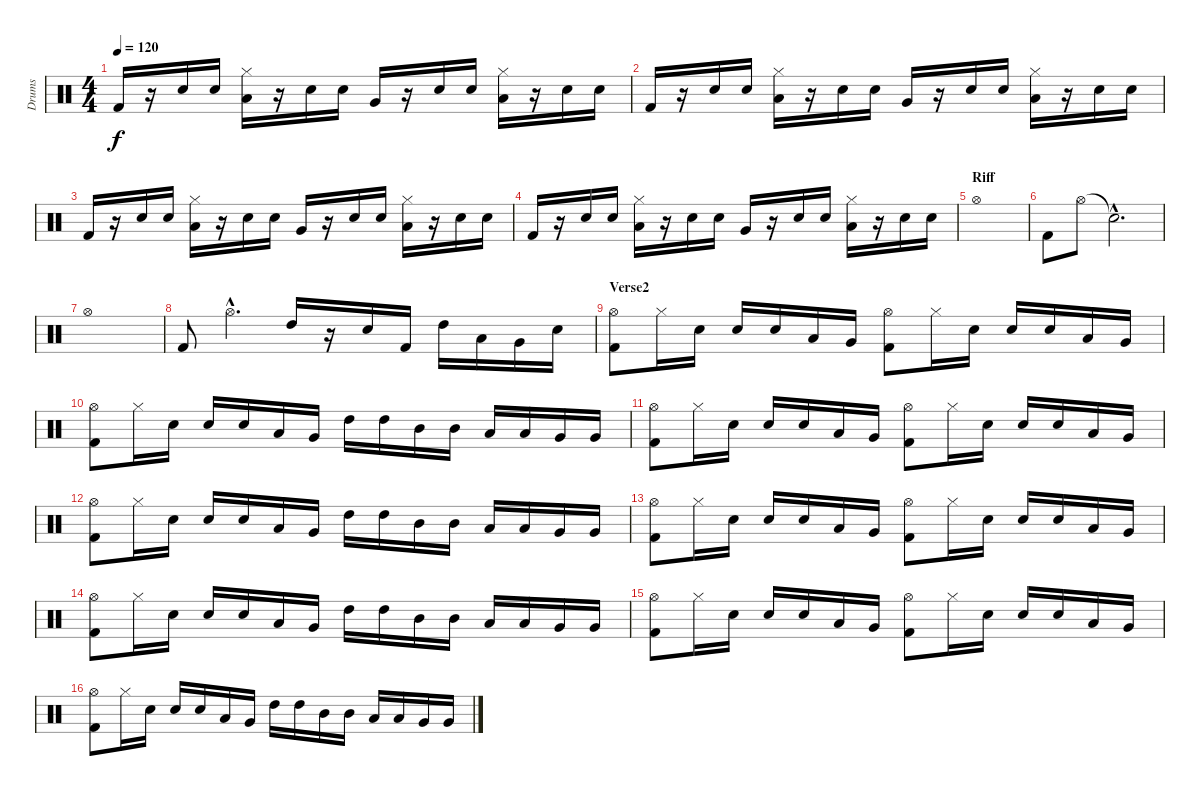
\track ("Drums" "Drums") {instrument percussion}
\staff {score}
\articulation defaults
\ts (4 4)
\tempo 120
\clef neutral
\ks c "Kick (hit) 2".16{dy f}
r.16 "Electric Snare (hit)".16 "Electric Snare (hit)".16 ("Hi-Hat (closed)" "Low Floor Tom (hit)").16 r.16 "Electric Snare (hit)".16 "Electric Snare (hit)".16 "Very Low Tom (hit)".16 r.16 "Electric Snare (hit)".16 "Electric Snare (hit)".16 ("Hi-Hat (closed)" "Low Floor Tom (hit)").16 r.16 "Electric Snare (hit)".16 "Electric Snare (hit)".16 |
"Kick (hit) 2".16 r.16 "Electric Snare (hit)".16 "Electric Snare (hit)".16 ("Hi-Hat (closed)" "Low Floor Tom (hit)").16 r.16 "Electric Snare (hit)".16 "Electric Snare (hit)".16 "Very Low Tom (hit)".16 r.16 "Electric Snare (hit)".16 "Electric Snare (hit)".16 ("Hi-Hat (closed)" "Low Floor Tom (hit)").16 r.16 "Electric Snare (hit)".16 "Electric Snare (hit)".16 |
"Kick (hit) 2".16 r.16 "Electric Snare (hit)".16 "Electric Snare (hit)".16 ("Hi-Hat (closed)" "Low Floor Tom (hit)").16 r.16 "Electric Snare (hit)".16 "Electric Snare (hit)".16 "Very Low Tom (hit)".16 r.16 "Electric Snare (hit)".16 "Electric Snare (hit)".16 ("Hi-Hat (closed)" "Low Floor Tom (hit)").16 r.16 "Electric Snare (hit)".16 "Electric Snare (hit)".16 |
"Kick (hit) 2".16 r.16 "Electric Snare (hit)".16 "Electric Snare (hit)".16 ("Hi-Hat (closed)" "Low Floor Tom (hit)").16 r.16 "Electric Snare (hit)".16 "Electric Snare (hit)".16 "Very Low Tom (hit)".16 r.16 "Electric Snare (hit)".16 "Electric Snare (hit)".16 ("Hi-Hat (closed)" "Low Floor Tom (hit)").16 r.16 "Electric Snare (hit)".16 "Electric Snare (hit)".16 |
\section ("" "Riff")
"Hi-Hat (open)".1 |
"Kick (hit) 2".8 "Hi-Hat (open)".8 "Snare (hit)"{hac t}.2{d} |
"Hi-Hat (open)".1 |
"Kick (hit) 2".8 "Hi-Hat (open)"{hac}.4{d} "High Tom (hit)".16 r.16 "Electric Snare (hit)".16 "Kick (hit) 2".16 "High Tom (hit)".16 "Low Tom (hit)".16 "Very Low Tom (hit)".16 "Electric Snare (hit)".16 |
\section ("" "Verse2")
("Hi-Hat (open)" "Kick (hit) 2").8 "Hi-Hat (closed)".16 "Electric Snare (hit)".16 "Electric Snare (hit)".16 "Electric Snare (hit)".16 "Low Floor Tom (hit)".16 "Very Low Tom (hit)".16 ("Hi-Hat (open)" "Kick (hit) 2").8 "Hi-Hat (closed)".16 "Electric Snare (hit)".16 "Electric Snare (hit)".16 "Electric Snare (hit)".16 "Low Floor Tom (hit)".16 "Very Low Tom (hit)".16 |
("Hi-Hat (open)" "Kick (hit) 2").8 "Hi-Hat (closed)".16 "Electric Snare (hit)".16 "Electric Snare (hit)".16 "Electric Snare (hit)".16 "Low Floor Tom (hit)".16 "Very Low Tom (hit)".16 "High Tom (hit)".16 "High Tom (hit)".16 "Mid Tom (hit)".16 "Mid Tom (hit)".16 "Low Tom (hit)".16 "Low Tom (hit)".16 "Very Low Tom (hit)".16 "Very Low Tom (hit)".16 |
("Hi-Hat (open)" "Kick (hit) 2").8 "Hi-Hat (closed)".16 "Electric Snare (hit)".16 "Electric Snare (hit)".16 "Electric Snare (hit)".16 "Low Floor Tom (hit)".16 "Very Low Tom (hit)".16 ("Hi-Hat (open)" "Kick (hit) 2").8 "Hi-Hat (closed)".16 "Electric Snare (hit)".16 "Electric Snare (hit)".16 "Electric Snare (hit)".16 "Low Floor Tom (hit)".16 "Very Low Tom (hit)".16 |
("Hi-Hat (open)" "Kick (hit) 2").8 "Hi-Hat (closed)".16 "Electric Snare (hit)".16 "Electric Snare (hit)".16 "Electric Snare (hit)".16 "Low Floor Tom (hit)".16 "Very Low Tom (hit)".16 "High Tom (hit)".16 "High Tom (hit)".16 "Mid Tom (hit)".16 "Mid Tom (hit)".16 "Low Tom (hit)".16 "Low Tom (hit)".16 "Very Low Tom (hit)".16 "Very Low Tom (hit)".16 |
("Hi-Hat (open)" "Kick (hit) 2").8 "Hi-Hat (closed)".16 "Electric Snare (hit)".16 "Electric Snare (hit)".16 "Electric Snare (hit)".16 "Low Floor Tom (hit)".16 "Very Low Tom (hit)".16 ("Hi-Hat (open)" "Kick (hit) 2").8 "Hi-Hat (closed)".16 "Electric Snare (hit)".16 "Electric Snare (hit)".16 "Electric Snare (hit)".16 "Low Floor Tom (hit)".16 "Very Low Tom (hit)".16 |
("Hi-Hat (open)" "Kick (hit) 2").8 "Hi-Hat (closed)".16 "Electric Snare (hit)".16 "Electric Snare (hit)".16 "Electric Snare (hit)".16 "Low Floor Tom (hit)".16 "Very Low Tom (hit)".16 "High Tom (hit)".16 "High Tom (hit)".16 "Mid Tom (hit)".16 "Mid Tom (hit)".16 "Low Tom (hit)".16 "Low Tom (hit)".16 "Very Low Tom (hit)".16 "Very Low Tom (hit)".16 |
("Hi-Hat (open)" "Kick (hit) 2").8 "Hi-Hat (closed)".16 "Electric Snare (hit)".16 "Electric Snare (hit)".16 "Electric Snare (hit)".16 "Low Floor Tom (hit)".16 "Very Low Tom (hit)".16 ("Hi-Hat (open)" "Kick (hit) 2").8 "Hi-Hat (closed)".16 "Electric Snare (hit)".16 "Electric Snare (hit)".16 "Electric Snare (hit)".16 "Low Floor Tom (hit)".16 "Very Low Tom (hit)".16 |
("Hi-Hat (open)" "Kick (hit) 2").8 "Hi-Hat (closed)".16 "Electric Snare (hit)".16 "Electric Snare (hit)".16 "Electric Snare (hit)".16 "Low Floor Tom (hit)".16 "Very Low Tom (hit)".16 "High Tom (hit)".16 "High Tom (hit)".16 "Mid Tom (hit)".16 "Mid Tom (hit)".16 "Low Tom (hit)".16 "Low Tom (hit)".16 "Very Low Tom (hit)".16 "Very Low Tom (hit)".16
